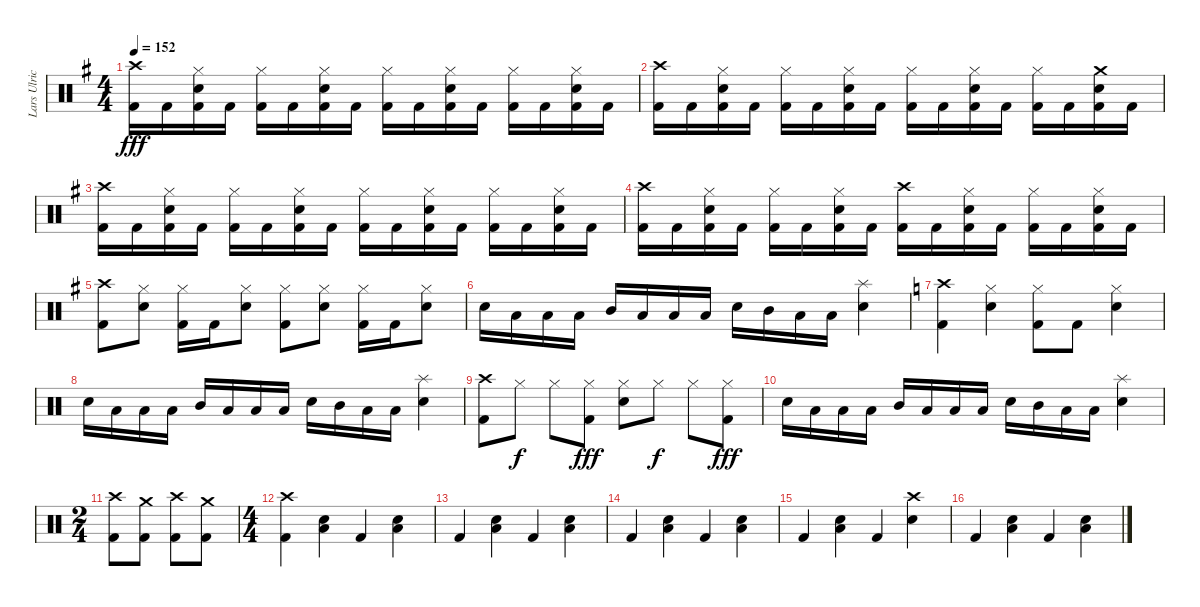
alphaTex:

\track ("Lars Ulrich" "Lars Ulric") {instrument percussion}
\staff {score}
\articulation defaults
\ts (4 4)
\tempo 152
\clef neutral
\ks g
("Crash high (hit)" "Kick (hit) 2").16{dy fff} "Kick (hit) 2".16 ("Hi-Hat (closed)" "Snare (hit) 2" "Kick (hit) 2").16 "Kick (hit) 2".16 ("Hi-Hat (closed)" "Kick (hit) 2").16 "Kick (hit) 2".16 ("Hi-Hat (closed)" "Snare (hit) 2" "Kick (hit) 2").16 "Kick (hit) 2".16 ("Hi-Hat (closed)" "Kick (hit) 2").16 "Kick (hit) 2".16 ("Hi-Hat (closed)" "Snare (hit) 2" "Kick (hit) 2").16 "Kick (hit) 2".16 ("Hi-Hat (closed)" "Kick (hit) 2").16 "Kick (hit) 2".16 ("Hi-Hat (closed)" "Snare (hit) 2" "Kick (hit) 2").16 "Kick (hit) 2".16 |
("Crash high (hit)" "Kick (hit) 2").16 "Kick (hit) 2".16 ("Hi-Hat (closed)" "Snare (hit) 2" "Kick (hit) 2").16 "Kick (hit) 2".16 ("Hi-Hat (closed)" "Kick (hit) 2").16 "Kick (hit) 2".16 ("Hi-Hat (closed)" "Snare (hit) 2" "Kick (hit) 2").16 "Kick (hit) 2".16 ("Hi-Hat (closed)" "Kick (hit) 2").16 "Kick (hit) 2".16 ("Hi-Hat (closed)" "Snare (hit) 2" "Kick (hit) 2").16 "Kick (hit) 2".16 ("Hi-Hat (closed)" "Kick (hit) 2").16 "Kick (hit) 2".16 ("Crash medium (hit)" "Snare (hit) 2" "Kick (hit) 2").16 "Kick (hit) 2".16 |
("Crash high (hit)" "Kick (hit) 2").16 "Kick (hit) 2".16 ("Hi-Hat (closed)" "Snare (hit) 2" "Kick (hit) 2").16 "Kick (hit) 2".16 ("Hi-Hat (closed)" "Kick (hit) 2").16 "Kick (hit) 2".16 ("Hi-Hat (closed)" "Snare (hit) 2" "Kick (hit) 2").16 "Kick (hit) 2".16 ("Hi-Hat (closed)" "Kick (hit) 2").16 "Kick (hit) 2".16 ("Hi-Hat (closed)" "Snare (hit) 2" "Kick (hit) 2").16 "Kick (hit) 2".16 ("Hi-Hat (closed)" "Kick (hit) 2").16 "Kick (hit) 2".16 ("Hi-Hat (closed)" "Snare (hit) 2" "Kick (hit) 2").16 "Kick (hit) 2".16 |
("Crash high (hit)" "Kick (hit) 2").16 "Kick (hit) 2".16 ("Hi-Hat (closed)" "Snare (hit) 2" "Kick (hit) 2").16 "Kick (hit) 2".16 ("Hi-Hat (closed)" "Kick (hit) 2").16 "Kick (hit) 2".16 ("Hi-Hat (closed)" "Snare (hit) 2" "Kick (hit) 2").16 "Kick (hit) 2".16 ("Crash high (hit)" "Kick (hit) 2").16 "Kick (hit) 2".16 ("Hi-Hat (closed)" "Snare (hit) 2" "Kick (hit) 2").16 "Kick (hit) 2".16 ("Hi-Hat (closed)" "Kick (hit) 2").16 "Kick (hit) 2".16 ("Hi-Hat (closed)" "Snare (hit) 2" "Kick (hit) 2").16 "Kick (hit) 2".16 |
("Crash high (hit)" "Kick (hit) 2").8 ("Hi-Hat (closed)" "Snare (hit) 2").8 ("Hi-Hat (closed)" "Kick (hit) 2").16 "Kick (hit) 2".16 ("Hi-Hat (closed)" "Snare (hit) 2").8 ("Hi-Hat (closed)" "Kick (hit) 2").8 ("Hi-Hat (closed)" "Snare (hit) 2").8 ("Hi-Hat (closed)" "Kick (hit) 2").16 "Kick (hit) 2".16 ("Hi-Hat (closed)" "Snare (hit) 2").8 |
"Snare (hit) 2".16 "Low Tom (hit)".16 "Low Tom (hit)".16 "Low Tom (hit)".16 "Mid Tom (hit)".16 "Low Tom (hit)".16 "Low Tom (hit)".16 "Low Tom (hit)".16 "Snare (hit) 2".16 "Mid Tom (hit)".16 "Low Tom (hit)".16 "Low Tom (hit)".16 ("Splash (hit)" "Snare (hit) 2").4 |
\ks c
("Crash high (hit)" "Kick (hit) 2").4 ("Hi-Hat (closed)" "Snare (hit) 2").4 ("Hi-Hat (closed)" "Kick (hit) 2").8 "Kick (hit) 2".8 ("Hi-Hat (closed)" "Snare (hit) 2").4 |
"Snare (hit) 2".16 "Low Tom (hit)".16 "Low Tom (hit)".16 "Low Tom (hit)".16 "Mid Tom (hit)".16 "Low Tom (hit)".16 "Low Tom (hit)".16 "Low Tom (hit)".16 "Snare (hit) 2".16 "Mid Tom (hit)".16 "Low Tom (hit)".16 "Low Tom (hit)".16 ("Splash (hit)" "Snare (hit) 2").4 |
("Crash high (hit)" "Kick (hit) 2").8 "Hi-Hat (closed)".8{dy f} "Hi-Hat (closed)".8 ("Hi-Hat (closed)" "Kick (hit) 2").8{dy fff} ("Hi-Hat (closed)" "Snare (hit) 2").8 "Hi-Hat (closed)".8{dy f} "Hi-Hat (closed)".8 ("Hi-Hat (closed)" "Kick (hit) 2").8{dy fff} |
"Snare (hit) 2".16 "Low Tom (hit)".16 "Low Tom (hit)".16 "Low Tom (hit)".16 "Mid Tom (hit)".16 "Low Tom (hit)".16 "Low Tom (hit)".16 "Low Tom (hit)".16 "Snare (hit) 2".16 "Mid Tom (hit)".16 "Low Tom (hit)".16 "Low Tom (hit)".16 ("Splash (hit)" "Snare (hit) 2").4 |
\ts (2 4)
("Crash high (hit)" "Kick (hit) 2").8 ("Crash medium (hit)" "Kick (hit) 2").8 ("Crash high (hit)" "Kick (hit) 2").8 ("Crash medium (hit)" "Kick (hit) 2").8 |
\ts (4 4)
("Crash high (hit)" "Kick (hit) 2").4 ("Low Floor Tom (hit)" "Snare (hit) 2").4 "Kick (hit) 2".4 ("Low Floor Tom (hit)" "Snare (hit) 2").4 |
"Kick (hit) 2".4 ("Low Floor Tom (hit)" "Snare (hit) 2").4 "Kick (hit) 2".4 ("Low Floor Tom (hit)" "Snare (hit) 2").4 |
"Kick (hit) 2".4 ("Low Floor Tom (hit)" "Snare (hit) 2").4 "Kick (hit) 2".4 ("Low Floor Tom (hit)" "Snare (hit) 2").4 |
"Kick (hit) 2".4 ("Low Floor Tom (hit)" "Snare (hit) 2").4 "Kick (hit) 2".4 ("Crash high (hit)" "Snare (hit) 2").4 |
"Kick (hit) 2".4 ("Low Floor Tom (hit)" "Snare (hit) 2").4 "Kick (hit) 2".4 ("Low Floor Tom (hit)" "Snare (hit) 2").4
